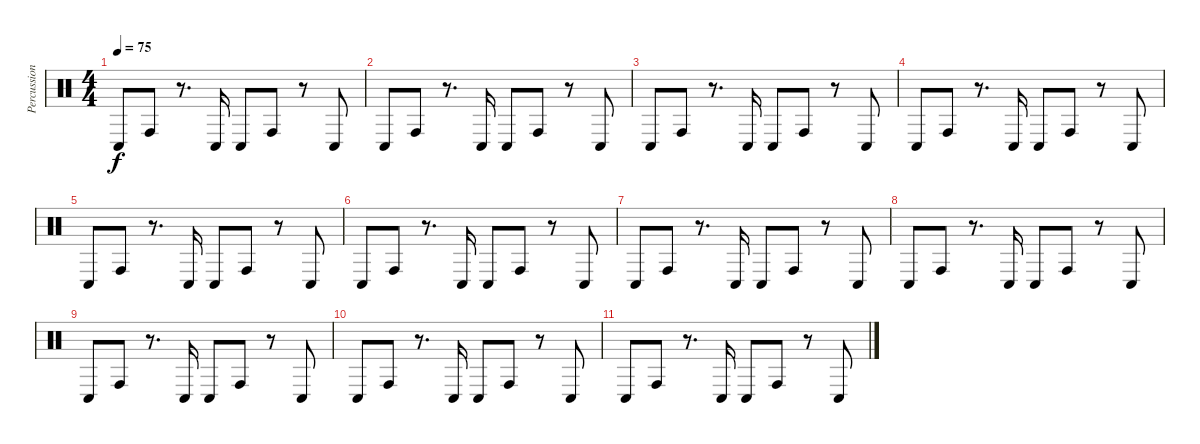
\track ("Percussion (bongo's) +" "Percussion") {instrument percussion}
\staff {score}
\articulation defaults
\ts (4 4)
\tempo 75
\clef neutral
\ks c "Conga low (hit)".8{dy f} "Conga high (hit)".8
r.8{d} "Conga low (hit)".16 "Conga low (hit)".8 "Conga high (hit)".8 r.8 "Conga low (hit)".8 |
"Conga low (hit)".8 "Conga high (hit)".8 r.8{d} "Conga low (hit)".16 "Conga low (hit)".8 "Conga high (hit)".8 r.8 "Conga low (hit)".8 |
"Conga low (hit)".8 "Conga high (hit)".8 r.8{d} "Conga low (hit)".16 "Conga low (hit)".8 "Conga high (hit)".8 r.8 "Conga low (hit)".8 |
"Conga low (hit)".8 "Conga high (hit)".8 r.8{d} "Conga low (hit)".16 "Conga low (hit)".8 "Conga high (hit)".8 r.8 "Conga low (hit)".8 |
"Conga low (hit)".8 "Conga high (hit)".8 r.8{d} "Conga low (hit)".16 "Conga low (hit)".8 "Conga high (hit)".8 r.8 "Conga low (hit)".8 |
"Conga low (hit)".8 "Conga high (hit)".8 r.8{d} "Conga low (hit)".16 "Conga low (hit)".8 "Conga high (hit)".8 r.8 "Conga low (hit)".8 |
"Conga low (hit)".8 "Conga high (hit)".8 r.8{d} "Conga low (hit)".16 "Conga low (hit)".8 "Conga high (hit)".8 r.8 "Conga low (hit)".8 |
"Conga low (hit)".8 "Conga high (hit)".8 r.8{d} "Conga low (hit)".16 "Conga low (hit)".8 "Conga high (hit)".8 r.8 "Conga low (hit)".8 |
"Conga low (hit)".8 "Conga high (hit)".8 r.8{d} "Conga low (hit)".16 "Conga low (hit)".8 "Conga high (hit)".8 r.8 "Conga low (hit)".8 |
"Conga low (hit)".8 "Conga high (hit)".8 r.8{d} "Conga low (hit)".16 "Conga low (hit)".8 "Conga high (hit)".8 r.8 "Conga low (hit)".8 |
"Conga low (hit)".8 "Conga high (hit)".8 r.8{d} "Conga low (hit)".16 "Conga low (hit)".8 "Conga high (hit)".8 r.8 "Conga low (hit)".8
